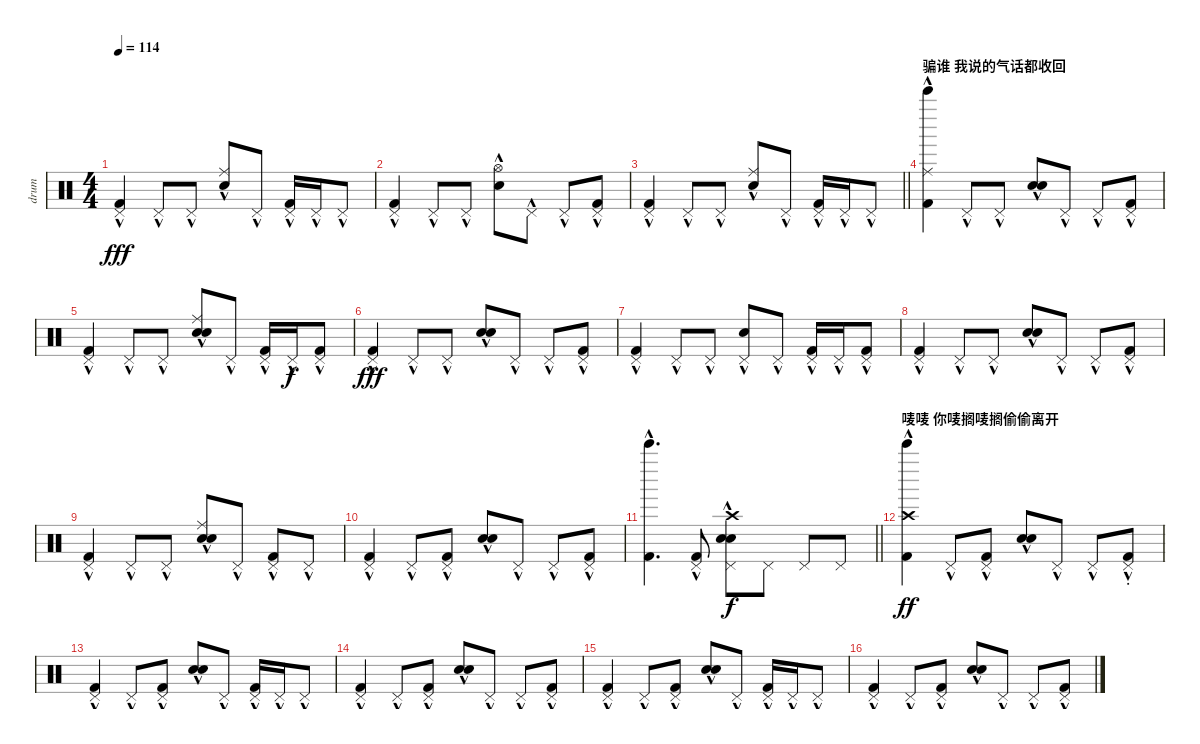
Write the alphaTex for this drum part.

\track ("drum" "drum") {instrument percussion}
\staff {score}
\articulation defaults
\ts (4 4)
\tempo 114
\clef neutral
\ks c
("Pedal Hi-Hat (hit)"{hac} "Kick (hit) 2"{hac}).4{dy fff} "Pedal Hi-Hat (hit)"{hac}.8 "Pedal Hi-Hat (hit)"{hac}.8 ("Ride (middle)"{hac} "Metronome (bell)"{hac}).8 "Pedal Hi-Hat (hit)"{hac}.8 ("Pedal Hi-Hat (hit)"{hac} "Kick (hit) 2"{hac}).16 "Pedal Hi-Hat (hit)"{hac}.16 "Pedal Hi-Hat (hit)"{hac}.8 |
("Pedal Hi-Hat (hit)"{hac} "Kick (hit) 2"{hac}).4 "Pedal Hi-Hat (hit)"{hac}.8 "Pedal Hi-Hat (hit)"{hac}.8 ("Hi-Hat (open)"{hac} "Hand Clap (hit)"{hac}).8 "Pedal Hi-Hat (hit)"{hac}.8 "Pedal Hi-Hat (hit)"{hac}.8 ("Pedal Hi-Hat (hit)"{hac} "Kick (hit) 2"{hac}).8 |
\barLineRight lightlight
("Pedal Hi-Hat (hit)"{hac} "Kick (hit) 2"{hac}).4 "Pedal Hi-Hat (hit)"{hac}.8 "Pedal Hi-Hat (hit)"{hac}.8 ("Ride (middle)"{hac} "Metronome (bell)"{hac}).8 "Pedal Hi-Hat (hit)"{hac}.8 ("Pedal Hi-Hat (hit)"{hac} "Kick (hit) 2"{hac}).16 "Pedal Hi-Hat (hit)"{hac}.16 "Pedal Hi-Hat (hit)"{hac}.8 |
\section ("" "骗谁 我说的气话都收回")
("Ride (middle)"{hac} "Bell Tree (hit)"{hac} "Kick (hit) 2"{hac}).4 "Pedal Hi-Hat (hit)"{hac}.8 "Pedal Hi-Hat (hit)"{hac}.8 ("Snare (hit) 2"{hac} "Hand Clap (hit)"{hac}).8 "Pedal Hi-Hat (hit)"{hac}.8 "Pedal Hi-Hat (hit)"{hac}.8 ("Pedal Hi-Hat (hit)"{hac} "Kick (hit) 2"{hac}).8 |
("Pedal Hi-Hat (hit)"{hac} "Kick (hit) 2"{hac}).4 "Pedal Hi-Hat (hit)"{hac}.8 "Pedal Hi-Hat (hit)"{hac}.8 ("Ride (middle)"{hac} "Snare (hit) 2" "Hand Clap (hit)"{hac}).8 "Pedal Hi-Hat (hit)"{hac}.8 ("Pedal Hi-Hat (hit)"{hac} "Kick (hit) 2"{hac}).16 "Pedal Hi-Hat (hit)"{hac}.16{dy f} ("Pedal Hi-Hat (hit)"{hac} "Kick (hit) 2"{hac}).8 |
("Pedal Hi-Hat (hit)"{hac} "Kick (hit) 2"{hac}).4{dy fff} "Pedal Hi-Hat (hit)"{hac}.8 "Pedal Hi-Hat (hit)"{hac}.8 ("Snare (hit) 2"{hac} "Hand Clap (hit)"{hac}).8 "Pedal Hi-Hat (hit)"{hac}.8 "Pedal Hi-Hat (hit)"{hac}.8 ("Pedal Hi-Hat (hit)"{hac} "Kick (hit) 2"{hac}).8 |
("Pedal Hi-Hat (hit)"{hac} "Kick (hit) 2"{hac}).4 "Pedal Hi-Hat (hit)"{hac}.8 "Pedal Hi-Hat (hit)"{hac}.8 ("Pedal Hi-Hat (hit)"{hac} "Hand Clap (hit)"{hac}).8 "Pedal Hi-Hat (hit)"{hac}.8 ("Pedal Hi-Hat (hit)"{hac} "Kick (hit) 2"{hac}).16 "Pedal Hi-Hat (hit)"{hac}.16 ("Pedal Hi-Hat (hit)"{hac} "Kick (hit) 2"{hac}).8 |
("Pedal Hi-Hat (hit)"{hac} "Kick (hit) 2"{hac}).4 "Pedal Hi-Hat (hit)"{hac}.8 "Pedal Hi-Hat (hit)"{hac}.8 ("Snare (hit) 2"{hac} "Hand Clap (hit)"{hac}).8 "Pedal Hi-Hat (hit)"{hac}.8 "Pedal Hi-Hat (hit)"{hac}.8 ("Pedal Hi-Hat (hit)"{hac} "Kick (hit) 2"{hac}).8 |
("Pedal Hi-Hat (hit)"{hac} "Kick (hit) 2"{hac}).4 "Pedal Hi-Hat (hit)"{hac}.8 "Pedal Hi-Hat (hit)"{hac}.8 ("Ride (middle)"{hac} "Snare (hit) 2" "Hand Clap (hit)"{hac}).8 "Pedal Hi-Hat (hit)"{hac}.8 ("Pedal Hi-Hat (hit)"{hac} "Kick (hit) 2"{hac}).8 "Pedal Hi-Hat (hit)"{hac}.8 |
("Pedal Hi-Hat (hit)"{hac} "Kick (hit) 2"{hac}).4 "Pedal Hi-Hat (hit)"{hac}.8 ("Pedal Hi-Hat (hit)"{hac} "Kick (hit) 2").8 ("Snare (hit) 2"{hac} "Hand Clap (hit)"{hac}).8 "Pedal Hi-Hat (hit)"{hac}.8 "Pedal Hi-Hat (hit)"{hac}.8 ("Pedal Hi-Hat (hit)"{hac} "Kick (hit) 2"{hac}).8 |
\barLineRight lightlight
("Bell Tree (hit)"{hac} "Kick (hit) 2"{hac}).4{d} ("Pedal Hi-Hat (hit)" "Kick (hit) 2"{hac}).8 ("Crash high (hit)"{hac} "Pedal Hi-Hat (hit)"{hac} "Hand Clap (hit)"{hac} "Snare (hit) 2"{hac}).8{dy f} "Pedal Hi-Hat (hit)".8 "Pedal Hi-Hat (hit)".8 "Pedal Hi-Hat (hit)".8 |
\section ("" "唛唛 你唛搁唛搁偷偷离开")
("Crash high (hit)"{hac} "Bell Tree (hit)" "Kick (hit) 2"{hac}).4{dy ff} "Pedal Hi-Hat (hit)"{hac}.8 ("Pedal Hi-Hat (hit)"{hac} "Kick (hit) 2"{hac}).8 ("Snare (hit) 2"{hac} "Hand Clap (hit)"{hac}).8 "Pedal Hi-Hat (hit)"{hac}.8 "Pedal Hi-Hat (hit)"{hac}.8 ("Pedal Hi-Hat (hit)"{hac} "Kick (hit) 2"{hac st}).8 |
("Pedal Hi-Hat (hit)"{hac} "Kick (hit) 2"{hac}).4 "Pedal Hi-Hat (hit)"{hac}.8 ("Pedal Hi-Hat (hit)"{hac} "Kick (hit) 2"{hac}).8 ("Snare (hit) 2"{hac} "Hand Clap (hit)"{hac}).8 "Pedal Hi-Hat (hit)"{hac}.8 ("Pedal Hi-Hat (hit)"{hac} "Kick (hit) 2"{hac}).16 "Pedal Hi-Hat (hit)"{hac}.16 "Pedal Hi-Hat (hit)"{hac}.8 |
("Pedal Hi-Hat (hit)"{hac} "Kick (hit) 2"{hac}).4 "Pedal Hi-Hat (hit)"{hac}.8 ("Pedal Hi-Hat (hit)"{hac} "Kick (hit) 2"{hac}).8 ("Snare (hit) 2"{hac} "Hand Clap (hit)"{hac}).8 "Pedal Hi-Hat (hit)"{hac}.8 "Pedal Hi-Hat (hit)"{hac}.8 ("Pedal Hi-Hat (hit)"{hac} "Kick (hit) 2"{hac}).8 |
("Pedal Hi-Hat (hit)"{hac} "Kick (hit) 2"{hac}).4 "Pedal Hi-Hat (hit)"{hac}.8 ("Pedal Hi-Hat (hit)"{hac} "Kick (hit) 2"{hac}).8 ("Snare (hit) 2"{hac} "Hand Clap (hit)"{hac}).8 "Pedal Hi-Hat (hit)"{hac}.8 ("Pedal Hi-Hat (hit)"{hac} "Kick (hit) 2"{hac}).16 "Pedal Hi-Hat (hit)"{hac}.16 "Pedal Hi-Hat (hit)"{hac}.8 |
("Pedal Hi-Hat (hit)"{hac} "Kick (hit) 2"{hac}).4 "Pedal Hi-Hat (hit)"{hac}.8 ("Pedal Hi-Hat (hit)"{hac} "Kick (hit) 2"{hac}).8 ("Snare (hit) 2"{hac} "Hand Clap (hit)"{hac}).8 "Pedal Hi-Hat (hit)"{hac}.8 "Pedal Hi-Hat (hit)"{hac}.8 ("Pedal Hi-Hat (hit)"{hac} "Kick (hit) 2"{hac}).8
